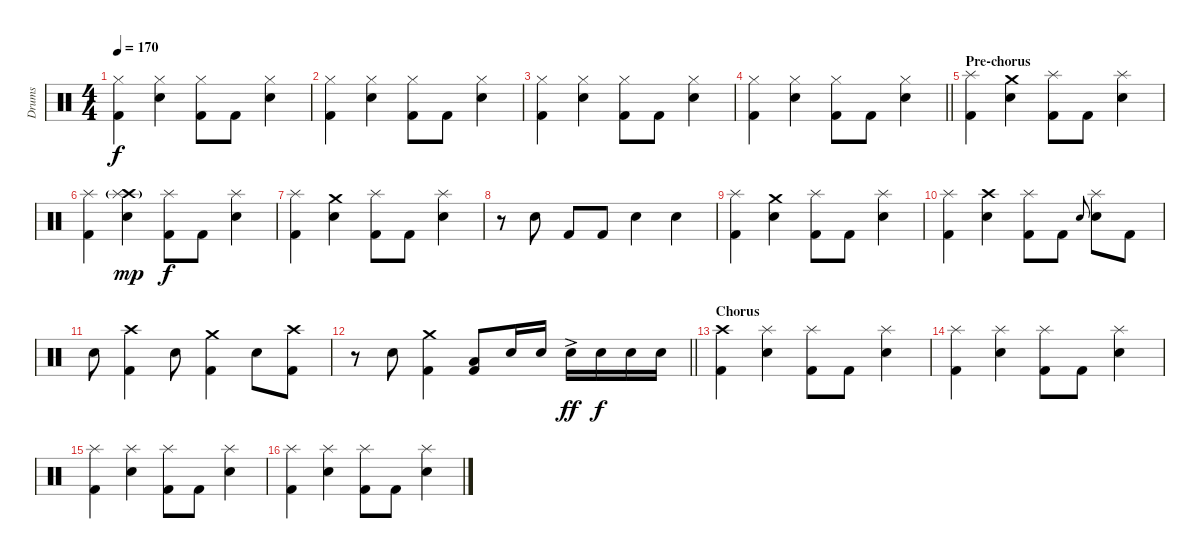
\track ("Drums" "Drums") {instrument percussion}
\staff {score}
\articulation defaults
\ts (4 4)
\tempo 170
\clef neutral
\ks aminor
("Hi-Hat (closed)" "Kick (hit) 2").4{dy f} ("Hi-Hat (closed)" "Snare (hit) 2").4 ("Hi-Hat (closed)" "Kick (hit) 2").8 "Kick (hit) 2".8 ("Hi-Hat (closed)" "Snare (hit) 2").4 |
("Hi-Hat (closed)" "Kick (hit) 2").4 ("Hi-Hat (closed)" "Snare (hit) 2").4 ("Hi-Hat (closed)" "Kick (hit) 2").8 "Kick (hit) 2".8 ("Hi-Hat (closed)" "Snare (hit) 2").4 |
("Hi-Hat (closed)" "Kick (hit) 2").4 ("Hi-Hat (closed)" "Snare (hit) 2").4 ("Hi-Hat (closed)" "Kick (hit) 2").8 "Kick (hit) 2".8 ("Hi-Hat (closed)" "Snare (hit) 2").4 |
\barLineRight lightlight
("Hi-Hat (closed)" "Kick (hit) 2").4 ("Hi-Hat (closed)" "Snare (hit) 2").4 ("Hi-Hat (closed)" "Kick (hit) 2").8 "Kick (hit) 2".8 ("Hi-Hat (closed)" "Snare (hit) 2").4 |
\section ("" "Pre-chorus")
("Splash (hit)" "Kick (hit) 2").4 ("Crash medium (hit)" "Snare (hit) 2").4 ("Splash (hit)" "Kick (hit) 2").8 "Kick (hit) 2".8 ("Splash (hit)" "Snare (hit) 2").4 |
("Splash (hit)" "Kick (hit) 2").4 ("Crash high (hit)"{g} "Splash (hit)" "Snare (hit) 2").4{dy mp} ("Splash (hit)" "Kick (hit) 2").8{dy f} "Kick (hit) 2".8 ("Splash (hit)" "Snare (hit) 2").4 |
("Splash (hit)" "Kick (hit) 2").4 ("Crash medium (hit)" "Snare (hit) 2").4 ("Splash (hit)" "Kick (hit) 2").8 "Kick (hit) 2".8 ("Splash (hit)" "Snare (hit) 2").4 |
r.8 "Snare (hit) 2".8 "Kick (hit) 2".8 "Kick (hit) 2".8 "Snare (hit) 2".4 "Snare (hit) 2".4 |
("Splash (hit)" "Kick (hit) 2").4 ("Crash medium (hit)" "Snare (hit) 2").4 ("Splash (hit)" "Kick (hit) 2").8 "Kick (hit) 2".8 ("Splash (hit)" "Snare (hit) 2").4 |
("Splash (hit)" "Kick (hit) 2").4 ("Crash high (hit)" "Snare (hit) 2").4 ("Splash (hit)" "Kick (hit) 2").8 "Kick (hit) 2".8 "Snare (hit) 2".8{gr onbeat} ("Splash (hit)" "Snare (hit) 2").8 "Kick (hit) 2".8 |
"Snare (hit) 2".8 ("Crash high (hit)" "Kick (hit) 2").4 "Snare (hit) 2".8 ("Crash medium (hit)" "Kick (hit) 2").4 "Snare (hit) 2".8 ("Crash high (hit)" "Kick (hit) 2").8 |
\barLineRight lightlight
r.8 "Snare (hit) 2".8 ("Crash medium (hit)" "Kick (hit) 2").4 ("Low Tom (hit)" "Kick (hit) 2").8 "Electric Snare (hit)".16 "Electric Snare (hit)".16 "Electric Snare (hit)"{ac}.16{dy ff} "Electric Snare (hit)".16{dy f} "Electric Snare (hit)".16 "Electric Snare (hit)".16 |
\section ("" "Chorus")
("Crash high (hit)" "Kick (hit) 2").4 ("Splash (hit)" "Snare (hit) 2").4 ("Splash (hit)" "Kick (hit) 2").8 "Kick (hit) 2".8 ("Splash (hit)" "Snare (hit) 2").4 |
("Splash (hit)" "Kick (hit) 2").4 ("Splash (hit)" "Snare (hit) 2").4 ("Splash (hit)" "Kick (hit) 2").8 "Kick (hit) 2".8 ("Splash (hit)" "Snare (hit) 2").4 |
("Splash (hit)" "Kick (hit) 2").4 ("Splash (hit)" "Snare (hit) 2").4 ("Splash (hit)" "Kick (hit) 2").8 "Kick (hit) 2".8 ("Splash (hit)" "Snare (hit) 2").4 |
("Splash (hit)" "Kick (hit) 2").4 ("Splash (hit)" "Snare (hit) 2").4 ("Splash (hit)" "Kick (hit) 2").8 "Kick (hit) 2".8 ("Splash (hit)" "Snare (hit) 2").4
